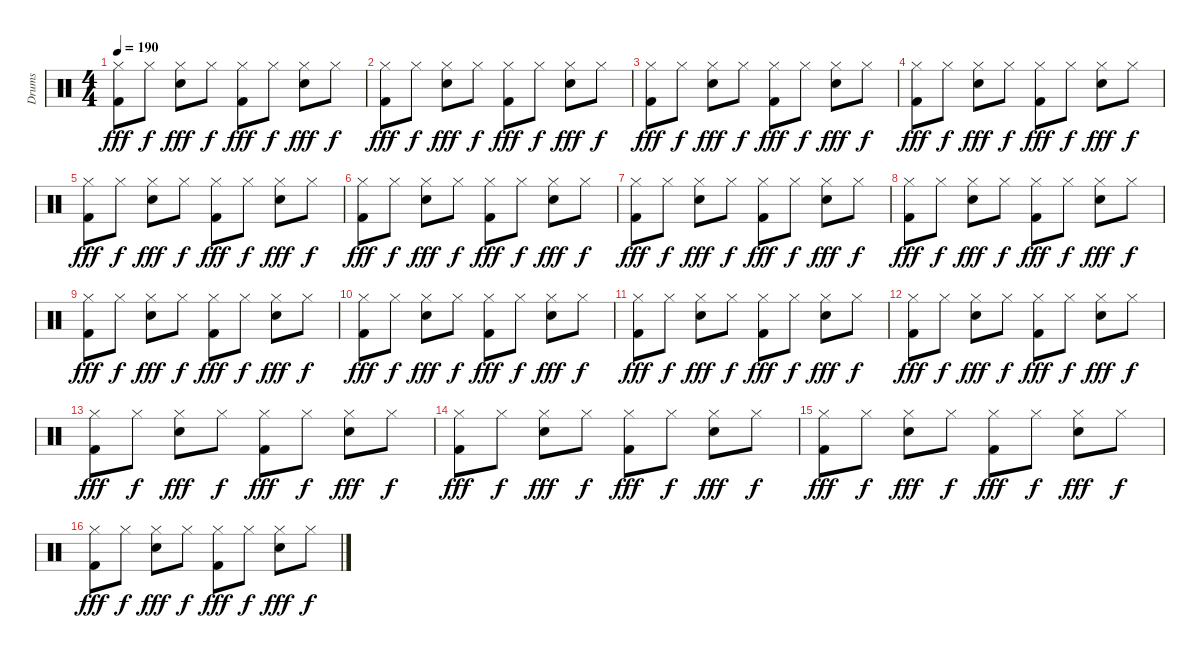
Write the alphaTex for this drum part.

\track ("Drums" "Drums") {instrument percussion}
\staff {score}
\articulation defaults
\ts (4 4)
\tempo 190
\clef neutral
\ks c
("Kick (hit) 2" "Hi-Hat (closed)").8{dy fff} "Hi-Hat (closed)".8{dy f} ("Snare (hit) 2" "Hi-Hat (closed)").8{dy fff} "Hi-Hat (closed)".8{dy f} ("Kick (hit) 2" "Hi-Hat (closed)").8{dy fff} "Hi-Hat (closed)".8{dy f} ("Snare (hit) 2" "Hi-Hat (closed)").8{dy fff} "Hi-Hat (closed)".8{dy f} |
("Kick (hit) 2" "Hi-Hat (closed)").8{dy fff} "Hi-Hat (closed)".8{dy f} ("Snare (hit) 2" "Hi-Hat (closed)").8{dy fff} "Hi-Hat (closed)".8{dy f} ("Kick (hit) 2" "Hi-Hat (closed)").8{dy fff} "Hi-Hat (closed)".8{dy f} ("Snare (hit) 2" "Hi-Hat (closed)").8{dy fff} "Hi-Hat (closed)".8{dy f} |
("Kick (hit) 2" "Hi-Hat (closed)").8{dy fff} "Hi-Hat (closed)".8{dy f} ("Snare (hit) 2" "Hi-Hat (closed)").8{dy fff} "Hi-Hat (closed)".8{dy f} ("Kick (hit) 2" "Hi-Hat (closed)").8{dy fff} "Hi-Hat (closed)".8{dy f} ("Snare (hit) 2" "Hi-Hat (closed)").8{dy fff} "Hi-Hat (closed)".8{dy f} |
("Kick (hit) 2" "Hi-Hat (closed)").8{dy fff} "Hi-Hat (closed)".8{dy f} ("Snare (hit) 2" "Hi-Hat (closed)").8{dy fff} "Hi-Hat (closed)".8{dy f} ("Kick (hit) 2" "Hi-Hat (closed)").8{dy fff} "Hi-Hat (closed)".8{dy f} ("Snare (hit) 2" "Hi-Hat (closed)").8{dy fff} "Hi-Hat (closed)".8{dy f} |
("Kick (hit) 2" "Hi-Hat (closed)").8{dy fff} "Hi-Hat (closed)".8{dy f} ("Snare (hit) 2" "Hi-Hat (closed)").8{dy fff} "Hi-Hat (closed)".8{dy f} ("Kick (hit) 2" "Hi-Hat (closed)").8{dy fff} "Hi-Hat (closed)".8{dy f} ("Snare (hit) 2" "Hi-Hat (closed)").8{dy fff} "Hi-Hat (closed)".8{dy f} |
("Kick (hit) 2" "Hi-Hat (closed)").8{dy fff} "Hi-Hat (closed)".8{dy f} ("Snare (hit) 2" "Hi-Hat (closed)").8{dy fff} "Hi-Hat (closed)".8{dy f} ("Kick (hit) 2" "Hi-Hat (closed)").8{dy fff} "Hi-Hat (closed)".8{dy f} ("Snare (hit) 2" "Hi-Hat (closed)").8{dy fff} "Hi-Hat (closed)".8{dy f} |
("Kick (hit) 2" "Hi-Hat (closed)").8{dy fff} "Hi-Hat (closed)".8{dy f} ("Snare (hit) 2" "Hi-Hat (closed)").8{dy fff} "Hi-Hat (closed)".8{dy f} ("Kick (hit) 2" "Hi-Hat (closed)").8{dy fff} "Hi-Hat (closed)".8{dy f} ("Snare (hit) 2" "Hi-Hat (closed)").8{dy fff} "Hi-Hat (closed)".8{dy f} |
("Kick (hit) 2" "Hi-Hat (closed)").8{dy fff} "Hi-Hat (closed)".8{dy f} ("Snare (hit) 2" "Hi-Hat (closed)").8{dy fff} "Hi-Hat (closed)".8{dy f} ("Kick (hit) 2" "Hi-Hat (closed)").8{dy fff} "Hi-Hat (closed)".8{dy f} ("Snare (hit) 2" "Hi-Hat (closed)").8{dy fff} "Hi-Hat (closed)".8{dy f} |
("Kick (hit) 2" "Hi-Hat (closed)").8{dy fff} "Hi-Hat (closed)".8{dy f} ("Snare (hit) 2" "Hi-Hat (closed)").8{dy fff} "Hi-Hat (closed)".8{dy f} ("Kick (hit) 2" "Hi-Hat (closed)").8{dy fff} "Hi-Hat (closed)".8{dy f} ("Snare (hit) 2" "Hi-Hat (closed)").8{dy fff} "Hi-Hat (closed)".8{dy f} |
("Kick (hit) 2" "Hi-Hat (closed)").8{dy fff} "Hi-Hat (closed)".8{dy f} ("Snare (hit) 2" "Hi-Hat (closed)").8{dy fff} "Hi-Hat (closed)".8{dy f} ("Kick (hit) 2" "Hi-Hat (closed)").8{dy fff} "Hi-Hat (closed)".8{dy f} ("Snare (hit) 2" "Hi-Hat (closed)").8{dy fff} "Hi-Hat (closed)".8{dy f} |
("Kick (hit) 2" "Hi-Hat (closed)").8{dy fff} "Hi-Hat (closed)".8{dy f} ("Snare (hit) 2" "Hi-Hat (closed)").8{dy fff} "Hi-Hat (closed)".8{dy f} ("Kick (hit) 2" "Hi-Hat (closed)").8{dy fff} "Hi-Hat (closed)".8{dy f} ("Snare (hit) 2" "Hi-Hat (closed)").8{dy fff} "Hi-Hat (closed)".8{dy f} |
("Kick (hit) 2" "Hi-Hat (closed)").8{dy fff} "Hi-Hat (closed)".8{dy f} ("Snare (hit) 2" "Hi-Hat (closed)").8{dy fff} "Hi-Hat (closed)".8{dy f} ("Kick (hit) 2" "Hi-Hat (closed)").8{dy fff} "Hi-Hat (closed)".8{dy f} ("Snare (hit) 2" "Hi-Hat (closed)").8{dy fff} "Hi-Hat (closed)".8{dy f} |
("Kick (hit) 2" "Hi-Hat (closed)").8{dy fff} "Hi-Hat (closed)".8{dy f} ("Snare (hit) 2" "Hi-Hat (closed)").8{dy fff} "Hi-Hat (closed)".8{dy f} ("Kick (hit) 2" "Hi-Hat (closed)").8{dy fff} "Hi-Hat (closed)".8{dy f} ("Snare (hit) 2" "Hi-Hat (closed)").8{dy fff} "Hi-Hat (closed)".8{dy f} |
("Kick (hit) 2" "Hi-Hat (closed)").8{dy fff} "Hi-Hat (closed)".8{dy f} ("Snare (hit) 2" "Hi-Hat (closed)").8{dy fff} "Hi-Hat (closed)".8{dy f} ("Kick (hit) 2" "Hi-Hat (closed)").8{dy fff} "Hi-Hat (closed)".8{dy f} ("Snare (hit) 2" "Hi-Hat (closed)").8{dy fff} "Hi-Hat (closed)".8{dy f} |
("Kick (hit) 2" "Hi-Hat (closed)").8{dy fff} "Hi-Hat (closed)".8{dy f} ("Snare (hit) 2" "Hi-Hat (closed)").8{dy fff} "Hi-Hat (closed)".8{dy f} ("Kick (hit) 2" "Hi-Hat (closed)").8{dy fff} "Hi-Hat (closed)".8{dy f} ("Snare (hit) 2" "Hi-Hat (closed)").8{dy fff} "Hi-Hat (closed)".8{dy f} |
("Kick (hit) 2" "Hi-Hat (closed)").8{dy fff} "Hi-Hat (closed)".8{dy f} ("Snare (hit) 2" "Hi-Hat (closed)").8{dy fff} "Hi-Hat (closed)".8{dy f} ("Kick (hit) 2" "Hi-Hat (closed)").8{dy fff} "Hi-Hat (closed)".8{dy f} ("Snare (hit) 2" "Hi-Hat (closed)").8{dy fff} "Hi-Hat (closed)".8{dy f}
